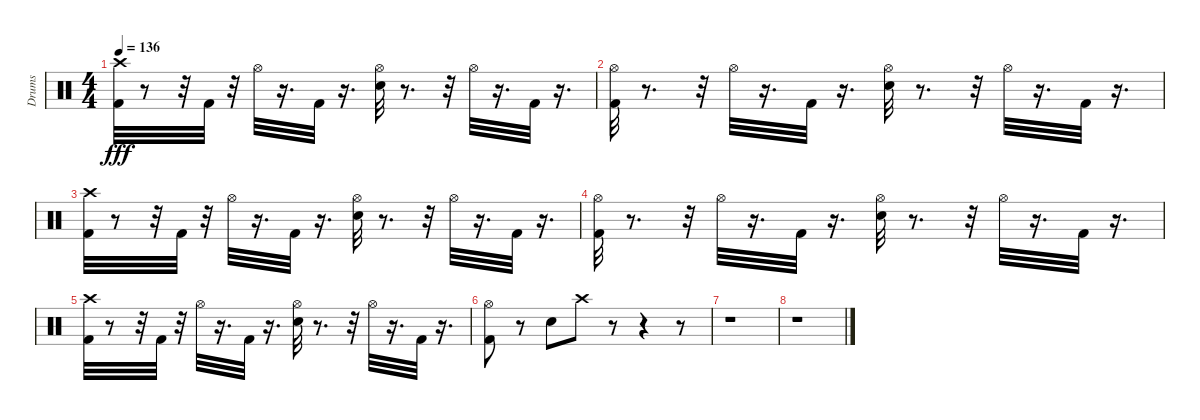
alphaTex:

\track ("Drums" "Drums") {instrument percussion}
\staff {score}
\articulation defaults
\ts (4 4)
\tempo 136
\clef neutral
\ks c
("Crash high (hit)" "Kick (hit) 2").32{dy fff} r.8 r.32 "Kick (hit) 2".32 r.32 "Hi-Hat (open)".32 r.16{d} "Kick (hit) 2".32 r.16{d} ("Hi-Hat (open)" "Electric Snare (hit)").32 r.8{d} r.32 "Hi-Hat (open)".32 r.16{d} "Kick (hit) 2".32 r.16{d} |
("Hi-Hat (open)" "Kick (hit) 2").32 r.8{d} r.32 "Hi-Hat (open)".32 r.16{d} "Kick (hit) 2".32 r.16{d} ("Electric Snare (hit)" "Hi-Hat (open)").32 r.8{d} r.32 "Hi-Hat (open)".32 r.16{d} "Kick (hit) 2".32 r.16{d} |
("Crash high (hit)" "Kick (hit) 2").32 r.8 r.32 "Kick (hit) 2".32 r.32 "Hi-Hat (open)".32 r.16{d} "Kick (hit) 2".32 r.16{d} ("Hi-Hat (open)" "Electric Snare (hit)").32 r.8{d} r.32 "Hi-Hat (open)".32 r.16{d} "Kick (hit) 2".32 r.16{d} |
("Hi-Hat (open)" "Kick (hit) 2").32 r.8{d} r.32 "Hi-Hat (open)".32 r.16{d} "Kick (hit) 2".32 r.16{d} ("Electric Snare (hit)" "Hi-Hat (open)").32 r.8{d} r.32 "Hi-Hat (open)".32 r.16{d} "Kick (hit) 2".32 r.16{d} |
("Crash high (hit)" "Kick (hit) 2").32 r.8 r.32 "Kick (hit) 2".32 r.32 "Hi-Hat (open)".32 r.16{d} "Kick (hit) 2".32 r.16{d} ("Hi-Hat (open)" "Electric Snare (hit)").32 r.8{d} r.32 "Hi-Hat (open)".32 r.16{d} "Kick (hit) 2".32 r.16{d} |
("Hi-Hat (open)" "Kick (hit) 2").8 r.8 "Electric Snare (hit)".8 "Crash high (hit)".8 r.8 r.4 r.8 |
r.1 |
r.1
